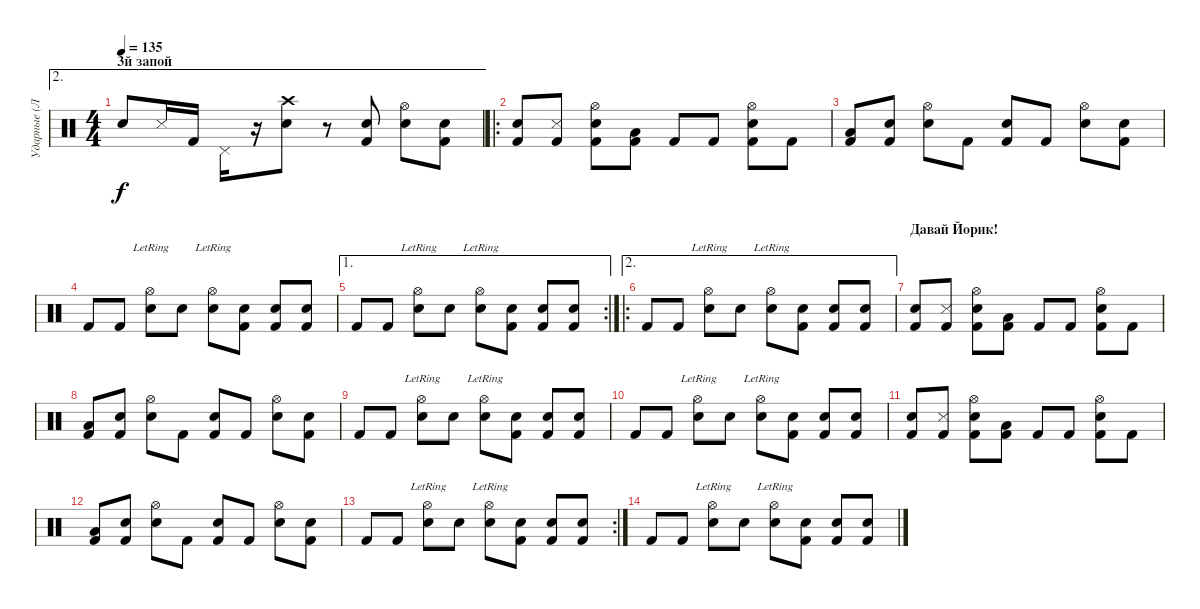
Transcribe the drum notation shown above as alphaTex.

\track ("Ударные (Лысов)" "Ударные (Л") {instrument percussion}
\staff {score}
\articulation defaults
\ae 2
\ts (4 4)
\section ("" "3й запой")
\tempo 135
\clef neutral
\ks c "Snare (hit) 2".8{dy f} "Snare (side stick) 3".16 "Kick (hit) 2".16 "Pedal Hi-Hat (hit)".16
r.16 ("Snare (hit) 2" "Crash high (hit)").8 r.8 ("Snare (hit) 2" "Kick (hit) 2").8 ("Hi-Hat (open)" "Snare (hit) 2").8 ("Snare (hit) 2" "Kick (hit) 2").8 |
\ro
("Kick (hit) 2" "Snare (hit) 2").8 ("Kick (hit) 2" "Snare (side stick) 3").8 ("Kick (hit) 2" "Hi-Hat (open)" "Snare (hit) 2").8 ("Kick (hit) 2" "Low Floor Tom (hit)").8 "Kick (hit) 2".8 "Kick (hit) 2".8 ("Kick (hit) 2" "Hi-Hat (open)" "Snare (hit) 2").8 "Kick (hit) 2".8 |
("Kick (hit) 2" "Low Floor Tom (hit)").8 ("Kick (hit) 2" "Snare (hit) 2").8 ("Hi-Hat (open)" "Snare (hit) 2").8 "Kick (hit) 2".8 ("Kick (hit) 2" "Snare (hit) 2").8 "Kick (hit) 2".8 ("Hi-Hat (open)" "Snare (hit) 2").8 ("Kick (hit) 2" "Snare (hit) 2").8 |
"Kick (hit) 2".8 "Kick (hit) 2".8 ("Hi-Hat (open)"{lr} "Snare (hit) 2").8 "Snare (hit) 2".8 ("Hi-Hat (open)"{lr} "Snare (hit) 2").8 ("Kick (hit) 2" "Snare (hit) 2").8 ("Kick (hit) 2" "Snare (hit) 2").8 ("Kick (hit) 2" "Snare (hit) 2").8 |
\ae 1
\rc 2 "Kick (hit) 2".8 "Kick (hit) 2".8
("Hi-Hat (open)"{lr} "Snare (hit) 2").8 "Snare (hit) 2".8 ("Hi-Hat (open)"{lr} "Snare (hit) 2").8 ("Kick (hit) 2" "Snare (hit) 2").8 ("Kick (hit) 2" "Snare (hit) 2").8 ("Kick (hit) 2" "Snare (hit) 2").8 |
\ae 2
\ro "Kick (hit) 2".8 "Kick (hit) 2".8
("Hi-Hat (open)"{lr} "Snare (hit) 2").8 "Snare (hit) 2".8 ("Hi-Hat (open)"{lr} "Snare (hit) 2").8 ("Kick (hit) 2" "Snare (hit) 2").8 ("Kick (hit) 2" "Snare (hit) 2").8 ("Kick (hit) 2" "Snare (hit) 2").8 |
\section ("" "Давай Йорик!")
("Kick (hit) 2" "Snare (hit) 2").8 ("Kick (hit) 2" "Snare (side stick) 3").8 ("Kick (hit) 2" "Hi-Hat (open)" "Snare (hit) 2").8 ("Kick (hit) 2" "Low Floor Tom (hit)").8 "Kick (hit) 2".8 "Kick (hit) 2".8 ("Kick (hit) 2" "Hi-Hat (open)" "Snare (hit) 2").8 "Kick (hit) 2".8 |
("Kick (hit) 2" "Low Floor Tom (hit)").8 ("Kick (hit) 2" "Snare (hit) 2").8 ("Hi-Hat (open)" "Snare (hit) 2").8 "Kick (hit) 2".8 ("Kick (hit) 2" "Snare (hit) 2").8 "Kick (hit) 2".8 ("Hi-Hat (open)" "Snare (hit) 2").8 ("Kick (hit) 2" "Snare (hit) 2").8 |
"Kick (hit) 2".8 "Kick (hit) 2".8 ("Hi-Hat (open)"{lr} "Snare (hit) 2").8 "Snare (hit) 2".8 ("Hi-Hat (open)"{lr} "Snare (hit) 2").8 ("Kick (hit) 2" "Snare (hit) 2").8 ("Kick (hit) 2" "Snare (hit) 2").8 ("Kick (hit) 2" "Snare (hit) 2").8 |
"Kick (hit) 2".8 "Kick (hit) 2".8 ("Hi-Hat (open)"{lr} "Snare (hit) 2").8 "Snare (hit) 2".8 ("Hi-Hat (open)"{lr} "Snare (hit) 2").8 ("Kick (hit) 2" "Snare (hit) 2").8 ("Kick (hit) 2" "Snare (hit) 2").8 ("Kick (hit) 2" "Snare (hit) 2").8 |
("Kick (hit) 2" "Snare (hit) 2").8 ("Kick (hit) 2" "Snare (side stick) 3").8 ("Kick (hit) 2" "Hi-Hat (open)" "Snare (hit) 2").8 ("Kick (hit) 2" "Low Floor Tom (hit)").8 "Kick (hit) 2".8 "Kick (hit) 2".8 ("Kick (hit) 2" "Hi-Hat (open)" "Snare (hit) 2").8 "Kick (hit) 2".8 |
("Kick (hit) 2" "Low Floor Tom (hit)").8 ("Kick (hit) 2" "Snare (hit) 2").8 ("Hi-Hat (open)" "Snare (hit) 2").8 "Kick (hit) 2".8 ("Kick (hit) 2" "Snare (hit) 2").8 "Kick (hit) 2".8 ("Hi-Hat (open)" "Snare (hit) 2").8 ("Kick (hit) 2" "Snare (hit) 2").8 |
\rc 2 "Kick (hit) 2".8 "Kick (hit) 2".8
("Hi-Hat (open)"{lr} "Snare (hit) 2").8 "Snare (hit) 2".8 ("Hi-Hat (open)"{lr} "Snare (hit) 2").8 ("Kick (hit) 2" "Snare (hit) 2").8 ("Kick (hit) 2" "Snare (hit) 2").8 ("Kick (hit) 2" "Snare (hit) 2").8 |
"Kick (hit) 2".8 "Kick (hit) 2".8 ("Hi-Hat (open)"{lr} "Snare (hit) 2").8 "Snare (hit) 2".8 ("Hi-Hat (open)"{lr} "Snare (hit) 2").8 ("Kick (hit) 2" "Snare (hit) 2").8 ("Kick (hit) 2" "Snare (hit) 2").8 ("Kick (hit) 2" "Snare (hit) 2").8
